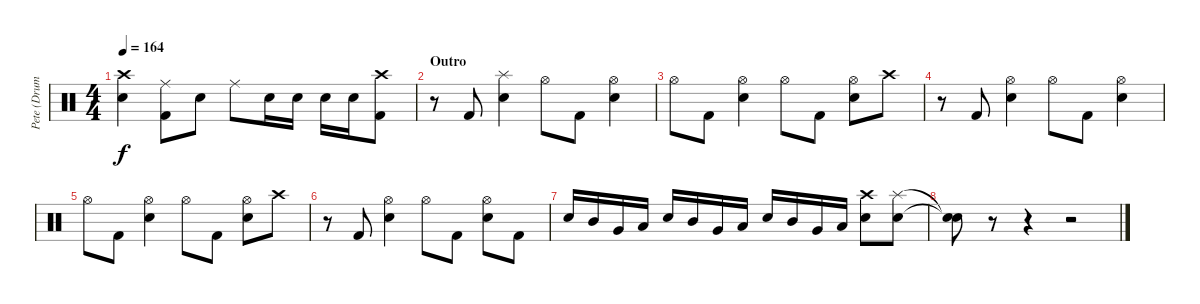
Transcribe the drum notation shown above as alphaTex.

\track ("Pete (Drums)" "Pete (Drum") {instrument percussion}
\staff {score}
\articulation defaults
\ts (4 4)
\tempo 164
\clef neutral
\ks c
("Crash high (hit)" "Snare (hit) 2").4{dy f} ("Ride (middle)" "Kick (hit) 2").8 "Snare (hit) 2".8 "Ride (middle)".8 "Snare (hit) 2".16 "Snare (hit) 2".16 "Snare (hit) 2".16 "Snare (hit) 2".16 ("Crash high (hit)" "Kick (hit) 2").8 |
\section ("" "Outro")
r.8 "Kick (hit) 2".8 ("Splash (hit)" "Snare (hit) 2").4 "Hi-Hat (open)".8 "Kick (hit) 2".8 ("Hi-Hat (open)" "Snare (hit) 2").4 |
"Hi-Hat (open)".8 "Kick (hit) 2".8 ("Hi-Hat (open)" "Snare (hit) 2").4 "Hi-Hat (open)".8 "Kick (hit) 2".8 ("Hi-Hat (open)" "Snare (hit) 2").8 "Crash high (hit)".8 |
r.8 "Kick (hit) 2".8 ("Hi-Hat (open)" "Snare (hit) 2").4 "Hi-Hat (open)".8 "Kick (hit) 2".8 ("Hi-Hat (open)" "Snare (hit) 2").4 |
"Hi-Hat (open)".8 "Kick (hit) 2".8 ("Hi-Hat (open)" "Snare (hit) 2").4 "Hi-Hat (open)".8 "Kick (hit) 2".8 ("Hi-Hat (open)" "Snare (hit) 2").8 "Crash high (hit)".8 |
r.8 "Kick (hit) 2".8 ("Hi-Hat (open)" "Snare (hit) 2").4 "Hi-Hat (open)".8 "Kick (hit) 2".8 ("Hi-Hat (open)" "Snare (hit) 2").8 "Kick (hit) 2".8 |
"Snare (hit) 2".16 "Mid Tom (hit)".16 "Very Low Tom (hit)".16 "Low Floor Tom (hit)".16 "Snare (hit) 2".16 "Mid Tom (hit)".16 "Very Low Tom (hit)".16 "Low Floor Tom (hit)".16 "Snare (hit) 2".16 "Mid Tom (hit)".16 "Very Low Tom (hit)".16 "Low Floor Tom (hit)".16 ("Crash high (hit)" "Snare (hit) 2").8 ("Splash (hit)" "Snare (hit) 2").8 |
("Snare (hit)"{t} "Snare (hit)"{t}).8 r.8 r.4 r.2
